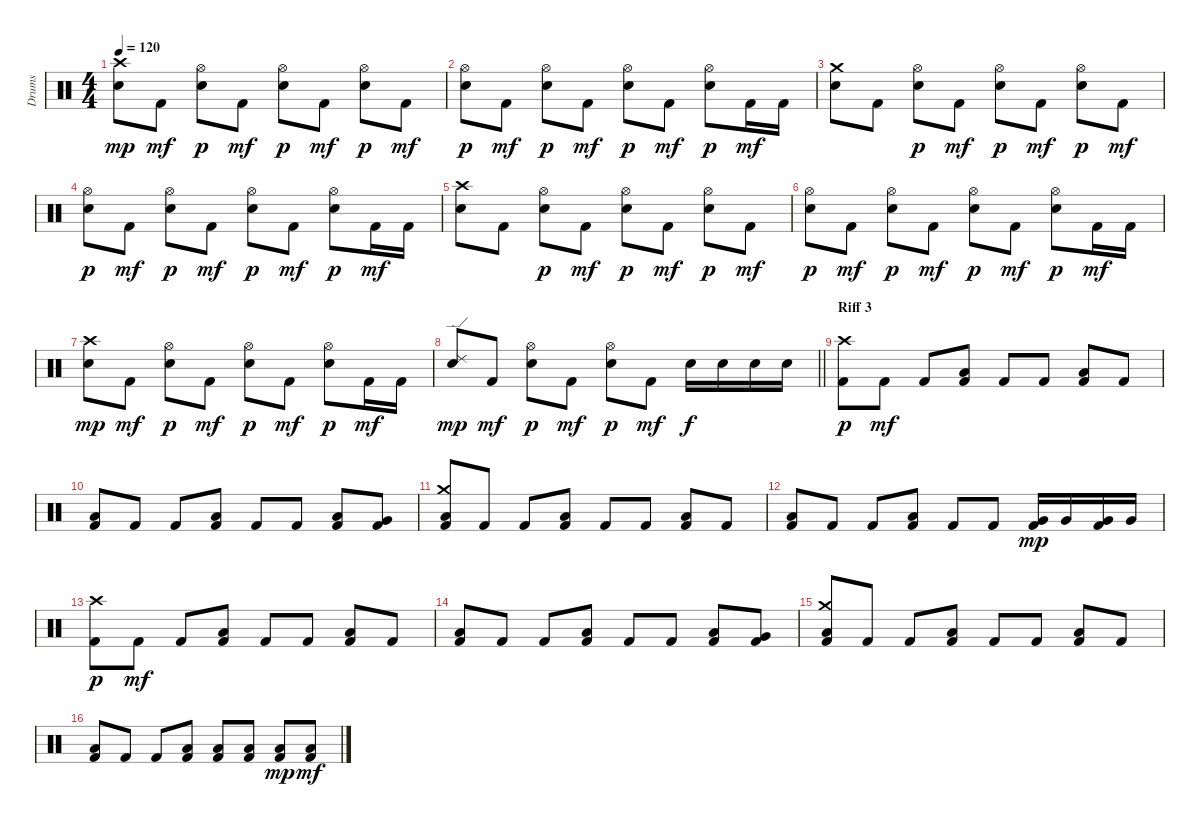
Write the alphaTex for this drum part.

\track ("Drums" "Drums") {instrument percussion}
\staff {score}
\articulation defaults
\ts (4 4)
\tempo 120
\clef neutral
\ks c
("Crash high (hit)" "Snare (hit) 2").8{dy mp} "Kick (hit) 2".8{dy mf} ("Hi-Hat (open)" "Snare (hit) 2").8{dy p} "Kick (hit) 2".8{dy mf} ("Hi-Hat (open)" "Snare (hit) 2").8{dy p} "Kick (hit) 2".8{dy mf} ("Hi-Hat (open)" "Snare (hit) 2").8{dy p} "Kick (hit) 2".8{dy mf} |
("Hi-Hat (open)" "Snare (hit) 2").8{dy p} "Kick (hit) 2".8{dy mf} ("Hi-Hat (open)" "Snare (hit) 2").8{dy p} "Kick (hit) 2".8{dy mf} ("Hi-Hat (open)" "Snare (hit) 2").8{dy p} "Kick (hit) 2".8{dy mf} ("Hi-Hat (open)" "Snare (hit) 2").8{dy p} "Kick (hit) 2".16{dy mf} "Kick (hit) 2".16 |
("Crash medium (hit)" "Snare (hit) 2").8 "Kick (hit) 2".8 ("Hi-Hat (open)" "Snare (hit) 2").8{dy p} "Kick (hit) 2".8{dy mf} ("Hi-Hat (open)" "Snare (hit) 2").8{dy p} "Kick (hit) 2".8{dy mf} ("Hi-Hat (open)" "Snare (hit) 2").8{dy p} "Kick (hit) 2".8{dy mf} |
("Hi-Hat (open)" "Snare (hit) 2").8{dy p} "Kick (hit) 2".8{dy mf} ("Hi-Hat (open)" "Snare (hit) 2").8{dy p} "Kick (hit) 2".8{dy mf} ("Hi-Hat (open)" "Snare (hit) 2").8{dy p} "Kick (hit) 2".8{dy mf} ("Hi-Hat (open)" "Snare (hit) 2").8{dy p} "Kick (hit) 2".16{dy mf} "Kick (hit) 2".16 |
("Crash high (hit)" "Snare (hit) 2").8 "Kick (hit) 2".8 ("Hi-Hat (open)" "Snare (hit) 2").8{dy p} "Kick (hit) 2".8{dy mf} ("Hi-Hat (open)" "Snare (hit) 2").8{dy p} "Kick (hit) 2".8{dy mf} ("Hi-Hat (open)" "Snare (hit) 2").8{dy p} "Kick (hit) 2".8{dy mf} |
("Hi-Hat (open)" "Snare (hit) 2").8{dy p} "Kick (hit) 2".8{dy mf} ("Hi-Hat (open)" "Snare (hit) 2").8{dy p} "Kick (hit) 2".8{dy mf} ("Hi-Hat (open)" "Snare (hit) 2").8{dy p} "Kick (hit) 2".8{dy mf} ("Hi-Hat (open)" "Snare (hit) 2").8{dy p} "Kick (hit) 2".16{dy mf} "Kick (hit) 2".16 |
("Crash high (hit)" "Snare (hit) 2").8{dy mp} "Kick (hit) 2".8{dy mf} ("Hi-Hat (open)" "Snare (hit) 2").8{dy p} "Kick (hit) 2".8{dy mf} ("Hi-Hat (open)" "Snare (hit) 2").8{dy p} "Kick (hit) 2".8{dy mf} ("Hi-Hat (open)" "Snare (hit) 2").8{dy p} "Kick (hit) 2".16{dy mf} "Kick (hit) 2".16 |
\barLineRight lightlight
("Ride (edge) 2" "Snare (hit) 2").8{dy mp} "Kick (hit) 2".8{dy mf} ("Hi-Hat (open)" "Snare (hit) 2").8{dy p} "Kick (hit) 2".8{dy mf} ("Hi-Hat (open)" "Snare (hit) 2").8{dy p} "Kick (hit) 2".8{dy mf} "Snare (hit) 2".16{dy f} "Snare (hit) 2".16 "Snare (hit) 2".16 "Snare (hit) 2".16 |
\section ("" "Riff 3")
("Kick (hit) 2" "Crash high (hit)").8{dy p} "Kick (hit) 2".8{dy mf} "Kick (hit) 2".8 ("Kick (hit) 2" "Low Tom (hit)").8 "Kick (hit) 2".8 "Kick (hit) 2".8 ("Kick (hit) 2" "Low Tom (hit)").8 "Kick (hit) 2".8 |
("Kick (hit) 2" "Low Tom (hit)").8 "Kick (hit) 2".8 "Kick (hit) 2".8 ("Kick (hit) 2" "Low Tom (hit)").8 "Kick (hit) 2".8 "Kick (hit) 2".8 ("Kick (hit) 2" "Low Tom (hit)").8 ("Kick (hit) 2" "Very Low Tom (hit)").8 |
("Kick (hit) 2" "Crash medium (hit)" "Low Tom (hit)").8 "Kick (hit) 2".8 "Kick (hit) 2".8 ("Kick (hit) 2" "Low Tom (hit)").8 "Kick (hit) 2".8 "Kick (hit) 2".8 ("Kick (hit) 2" "Low Tom (hit)").8 "Kick (hit) 2".8 |
("Kick (hit) 2" "Low Tom (hit)").8 "Kick (hit) 2".8 "Kick (hit) 2".8 ("Kick (hit) 2" "Low Tom (hit)").8 "Kick (hit) 2".8 "Kick (hit) 2".8 ("Kick (hit) 2" "Very Low Tom (hit)").16{dy mp} "Very Low Tom (hit)".16 ("Kick (hit) 2" "Very Low Tom (hit)").16 "Very Low Tom (hit)".16 |
("Kick (hit) 2" "Crash high (hit)").8{dy p} "Kick (hit) 2".8{dy mf} "Kick (hit) 2".8 ("Kick (hit) 2" "Low Tom (hit)").8 "Kick (hit) 2".8 "Kick (hit) 2".8 ("Kick (hit) 2" "Low Tom (hit)").8 "Kick (hit) 2".8 |
("Kick (hit) 2" "Low Tom (hit)").8 "Kick (hit) 2".8 "Kick (hit) 2".8 ("Kick (hit) 2" "Low Tom (hit)").8 "Kick (hit) 2".8 "Kick (hit) 2".8 ("Kick (hit) 2" "Low Tom (hit)").8 ("Kick (hit) 2" "Very Low Tom (hit)").8 |
("Kick (hit) 2" "Crash medium (hit)" "Low Tom (hit)").8 "Kick (hit) 2".8 "Kick (hit) 2".8 ("Kick (hit) 2" "Low Tom (hit)").8 "Kick (hit) 2".8 "Kick (hit) 2".8 ("Kick (hit) 2" "Low Tom (hit)").8 "Kick (hit) 2".8 |
("Kick (hit) 2" "Low Tom (hit)").8 "Kick (hit) 2".8 "Kick (hit) 2".8 ("Kick (hit) 2" "Low Tom (hit)").8 ("Kick (hit) 2" "Low Floor Tom (hit)").8 ("Kick (hit) 2" "Low Floor Tom (hit)").8 ("Kick (hit) 2" "Low Floor Tom (hit)").8{dy mp} ("Kick (hit) 2" "Low Floor Tom (hit)").8{dy mf}
